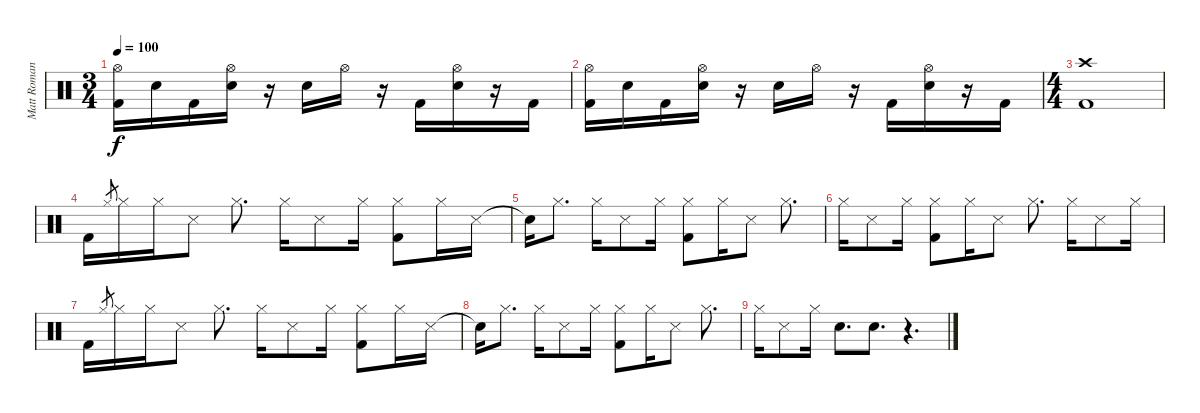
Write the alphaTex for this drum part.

\track ("Matt Romano" "Matt Roman") {instrument percussion}
\staff {score}
\articulation defaults
\ts (3 4)
\tempo 100
\clef neutral
\ks c
("Hi-Hat (open)" "Kick (hit) 2").16{dy f} "Snare (hit) 2".16 "Kick (hit) 2".16 ("Hi-Hat (open)" "Snare (hit) 2").16 r.16 "Snare (hit) 2".16 "Hi-Hat (open)".16 r.16 "Kick (hit) 2".16 ("Hi-Hat (open)" "Snare (hit) 2").16 r.16 "Kick (hit) 2".16 |
("Hi-Hat (open)" "Kick (hit) 2").16 "Snare (hit) 2".16 "Kick (hit) 2".16 ("Hi-Hat (open)" "Snare (hit) 2").16 r.16 "Snare (hit) 2".16 "Hi-Hat (open)".16 r.16 "Kick (hit) 2".16 ("Hi-Hat (open)" "Snare (hit) 2").16 r.16 "Kick (hit) 2".16 |
\ts (4 4)
("Crash high (hit)" "Kick (hit) 2").1 |
"Kick (hit) 2".16 "Hi-Hat (closed)".8{gr} "Hi-Hat (closed)".16 "Hi-Hat (closed)".16 "Snare (side stick) 3".8 "Hi-Hat (closed)".8{d} "Hi-Hat (closed)".16 "Snare (side stick) 3".8 "Hi-Hat (closed)".16 ("Hi-Hat (closed)" "Kick (hit) 2").8 "Hi-Hat (closed)".16 "Snare (side stick) 3".16 |
"Snare (hit)"{t}.16 "Hi-Hat (closed)".8{d} "Hi-Hat (closed)".16 "Snare (side stick) 3".8 "Hi-Hat (closed)".16 ("Hi-Hat (closed)" "Kick (hit) 2").8 "Hi-Hat (closed)".16 "Snare (side stick) 3".8 "Hi-Hat (closed)".8{d} |
"Hi-Hat (closed)".16 "Snare (side stick) 3".8 "Hi-Hat (closed)".16 ("Hi-Hat (closed)" "Kick (hit) 2").8 "Hi-Hat (closed)".16 "Snare (side stick) 3".8 "Hi-Hat (closed)".8{d} "Hi-Hat (closed)".16 "Snare (side stick) 3".8 "Hi-Hat (closed)".16 |
"Kick (hit) 2".16 "Hi-Hat (closed)".8{gr} "Hi-Hat (closed)".16 "Hi-Hat (closed)".16 "Snare (side stick) 3".8 "Hi-Hat (closed)".8{d} "Hi-Hat (closed)".16 "Snare (side stick) 3".8 "Hi-Hat (closed)".16 ("Hi-Hat (closed)" "Kick (hit) 2").8 "Hi-Hat (closed)".16 "Snare (side stick) 3".16 |
"Snare (hit)"{t}.16 "Hi-Hat (closed)".8{d} "Hi-Hat (closed)".16 "Snare (side stick) 3".8 "Hi-Hat (closed)".16 ("Hi-Hat (closed)" "Kick (hit) 2").8 "Hi-Hat (closed)".16 "Snare (side stick) 3".8 "Hi-Hat (closed)".8{d} |
"Hi-Hat (closed)".16 "Snare (side stick) 3".8 "Hi-Hat (closed)".16 "Snare (hit) 2".8{d} "Snare (hit) 2".8{d} r.4{d}
